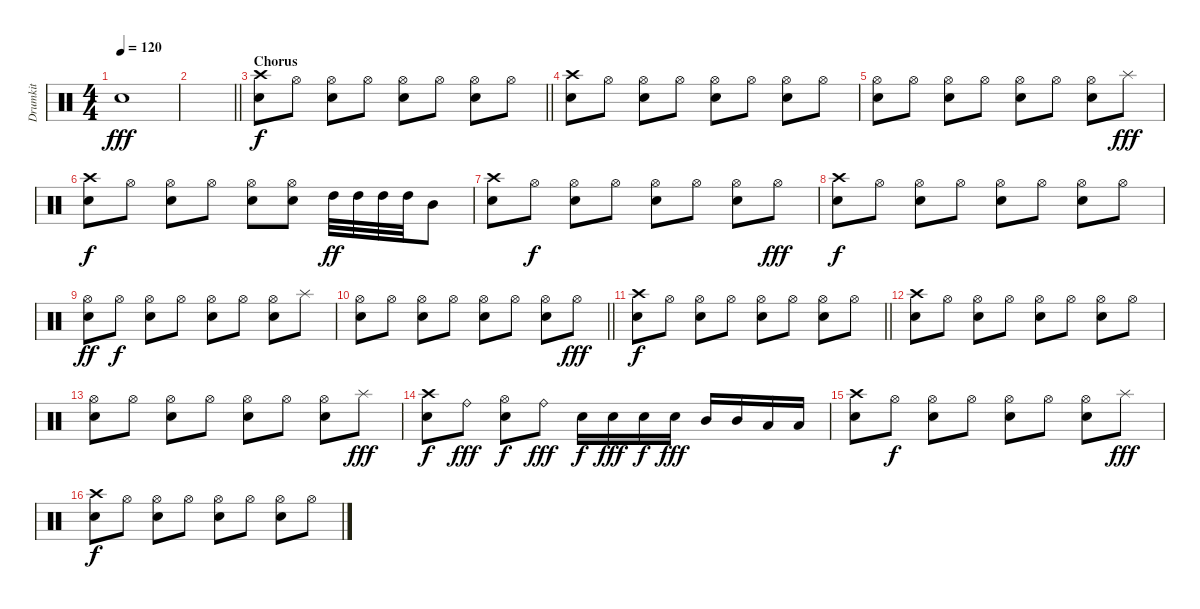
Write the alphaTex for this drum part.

\track ("Drumkit" "Drumkit") {instrument percussion}
\staff {score}
\articulation defaults
\ts (4 4)
\tempo 120
\clef neutral
\ks c "Electric Snare (hit)".1{dy fff}
|
\barLineRight lightlight
|
\section ("" "Chorus")
\barLineRight lightlight
("Crash high (hit)" "Electric Snare (hit)").8{dy f} "Hi-Hat (open)".8 ("Hi-Hat (open)" "Electric Snare (hit)").8 "Hi-Hat (open)".8 ("Hi-Hat (open)" "Electric Snare (hit)").8 "Hi-Hat (open)".8 ("Hi-Hat (open)" "Electric Snare (hit)").8 "Hi-Hat (open)".8 |
("Crash high (hit)" "Electric Snare (hit)").8 "Hi-Hat (open)".8 ("Hi-Hat (open)" "Electric Snare (hit)").8 "Hi-Hat (open)".8 ("Hi-Hat (open)" "Electric Snare (hit)").8 "Hi-Hat (open)".8 ("Hi-Hat (open)" "Electric Snare (hit)").8 "Hi-Hat (open)".8 |
("Hi-Hat (open)" "Electric Snare (hit)").8 "Hi-Hat (open)".8 ("Hi-Hat (open)" "Electric Snare (hit)").8 "Hi-Hat (open)".8 ("Hi-Hat (open)" "Electric Snare (hit)").8 "Hi-Hat (open)".8 ("Hi-Hat (open)" "Electric Snare (hit)").8 "Splash (hit)".8{dy fff} |
("Crash high (hit)" "Electric Snare (hit)").8{dy f} "Hi-Hat (open)".8 ("Hi-Hat (open)" "Electric Snare (hit)").8 "Hi-Hat (open)".8 ("Hi-Hat (open)" "Electric Snare (hit)").8 ("Hi-Hat (open)" "Electric Snare (hit)").8 "High Tom (hit)".32{dy ff} "High Tom (hit)".32 "High Tom (hit)".32 "High Tom (hit)".32 "Mid Tom (hit)".8 |
("Crash high (hit)" "Electric Snare (hit)").8 "Hi-Hat (open)".8{dy f} ("Hi-Hat (open)" "Electric Snare (hit)").8 "Hi-Hat (open)".8 ("Hi-Hat (open)" "Electric Snare (hit)").8 "Hi-Hat (open)".8 ("Hi-Hat (open)" "Electric Snare (hit)").8 "Hi-Hat (open)".8{dy fff} |
("Crash high (hit)" "Electric Snare (hit)").8{dy f} "Hi-Hat (open)".8 ("Hi-Hat (open)" "Electric Snare (hit)").8 "Hi-Hat (open)".8 ("Hi-Hat (open)" "Electric Snare (hit)").8 "Hi-Hat (open)".8 ("Hi-Hat (open)" "Electric Snare (hit)").8 "Hi-Hat (open)".8 |
("Hi-Hat (open)" "Electric Snare (hit)").8{dy ff} "Hi-Hat (open)".8{dy f} ("Hi-Hat (open)" "Electric Snare (hit)").8 "Hi-Hat (open)".8 ("Hi-Hat (open)" "Electric Snare (hit)").8 "Hi-Hat (open)".8 ("Hi-Hat (open)" "Electric Snare (hit)").8 "Splash (hit)".8 |
\barLineRight lightlight
("Hi-Hat (open)" "Electric Snare (hit)").8 "Hi-Hat (open)".8 ("Hi-Hat (open)" "Electric Snare (hit)").8 "Hi-Hat (open)".8 ("Hi-Hat (open)" "Electric Snare (hit)").8 "Hi-Hat (open)".8 ("Hi-Hat (open)" "Electric Snare (hit)").8 "Hi-Hat (open)".8{dy fff} |
\barLineRight lightlight
("Crash high (hit)" "Electric Snare (hit)").8{dy f} "Hi-Hat (open)".8 ("Hi-Hat (open)" "Electric Snare (hit)").8 "Hi-Hat (open)".8 ("Hi-Hat (open)" "Electric Snare (hit)").8 "Hi-Hat (open)".8 ("Hi-Hat (open)" "Electric Snare (hit)").8 "Hi-Hat (open)".8 |
("Crash high (hit)" "Electric Snare (hit)").8 "Hi-Hat (open)".8 ("Hi-Hat (open)" "Electric Snare (hit)").8 "Hi-Hat (open)".8 ("Hi-Hat (open)" "Electric Snare (hit)").8 "Hi-Hat (open)".8 ("Hi-Hat (open)" "Electric Snare (hit)").8 "Hi-Hat (open)".8 |
("Hi-Hat (open)" "Electric Snare (hit)").8 "Hi-Hat (open)".8 ("Hi-Hat (open)" "Electric Snare (hit)").8 "Hi-Hat (open)".8 ("Hi-Hat (open)" "Electric Snare (hit)").8 "Hi-Hat (open)".8 ("Hi-Hat (open)" "Electric Snare (hit)").8 "Splash (hit)".8{dy fff} |
("Crash high (hit)" "Electric Snare (hit)").8{dy f} "Ride (bell)".8{dy fff} ("Hi-Hat (open)" "Electric Snare (hit)").8{dy f} "Ride (bell)".8{dy fff} "Electric Snare (hit)".16{dy f} "Electric Snare (hit)".16{dy fff} "Electric Snare (hit)".16{dy f} "Electric Snare (hit)".16{dy fff} "Mid Tom (hit)".16 "Mid Tom (hit)".16 "Low Tom (hit)".16 "Low Tom (hit)".16 |
("Crash high (hit)" "Electric Snare (hit)").8 "Hi-Hat (open)".8{dy f} ("Hi-Hat (open)" "Electric Snare (hit)").8 "Hi-Hat (open)".8 ("Hi-Hat (open)" "Electric Snare (hit)").8 "Hi-Hat (open)".8 ("Hi-Hat (open)" "Electric Snare (hit)").8 "Splash (hit)".8{dy fff} |
("Crash high (hit)" "Electric Snare (hit)").8{dy f} "Hi-Hat (open)".8 ("Hi-Hat (open)" "Electric Snare (hit)").8 "Hi-Hat (open)".8 ("Hi-Hat (open)" "Electric Snare (hit)").8 "Hi-Hat (open)".8 ("Hi-Hat (open)" "Electric Snare (hit)").8 "Hi-Hat (open)".8
